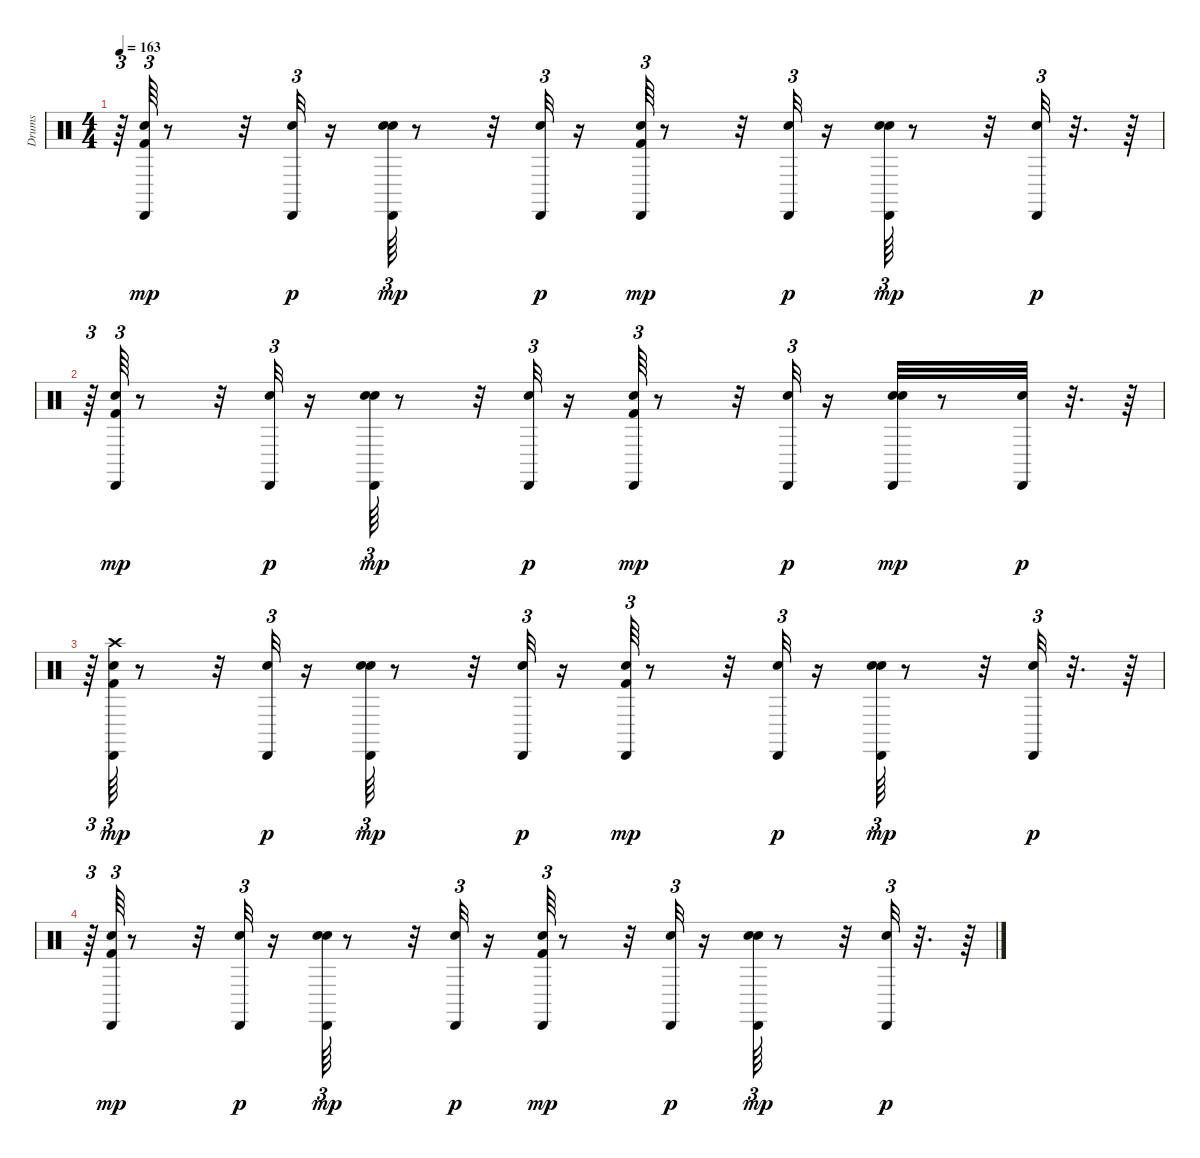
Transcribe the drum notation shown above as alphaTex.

\track ("Drums               " "Drums     ") {instrument percussion}
\staff {score}
\articulation defaults
\ts (4 4)
\tempo 163
\clef neutral
\ks c
r.64{tu (3 2) dy p} ("Kick (hit) 2" "Snare (hit) 2" "Cabasa (hit)").64{tu (3 2) dy mp} r.8 r.32 ("Snare (hit) 2" "Cabasa (hit)").32{tu (3 2) dy p} r.16 ("Snare (hit) 2" "Hand Clap (hit)" "Cabasa (hit)").64{tu (3 2) dy mp} r.8 r.32 ("Snare (hit) 2" "Cabasa (hit)").32{tu (3 2) dy p} r.16 ("Kick (hit) 2" "Snare (hit) 2" "Cabasa (hit)").64{tu (3 2) dy mp} r.8 r.32 ("Snare (hit) 2" "Cabasa (hit)").32{tu (3 2) dy p} r.16 ("Snare (hit) 2" "Hand Clap (hit)" "Cabasa (hit)").64{tu (3 2) dy mp} r.8 r.32 ("Snare (hit) 2" "Cabasa (hit)").32{tu (3 2) dy p} r.32{d} r.64 |
r.64{tu (3 2)} ("Kick (hit) 2" "Snare (hit) 2" "Cabasa (hit)").64{tu (3 2) dy mp} r.8 r.32 ("Snare (hit) 2" "Cabasa (hit)").32{tu (3 2) dy p} r.16 ("Snare (hit) 2" "Hand Clap (hit)" "Cabasa (hit)").64{tu (3 2) dy mp} r.8 r.32 ("Snare (hit) 2" "Cabasa (hit)").32{tu (3 2) dy p} r.16 ("Kick (hit) 2" "Snare (hit) 2" "Cabasa (hit)").64{tu (3 2) dy mp} r.8 r.32 ("Snare (hit) 2" "Cabasa (hit)").32{tu (3 2) dy p} r.16 ("Snare (hit) 2" "Hand Clap (hit)" "Cabasa (hit)").32{dy mp} r.8 ("Snare (hit) 2" "Cabasa (hit)").32{dy p} r.32{d} r.64 |
r.64{tu (3 2)} ("Kick (hit) 2" "Snare (hit) 2" "Crash high (hit)" "Cabasa (hit)").64{tu (3 2) dy mp} r.8 r.32 ("Snare (hit) 2" "Cabasa (hit)").32{tu (3 2) dy p} r.16 ("Snare (hit) 2" "Hand Clap (hit)" "Cabasa (hit)").64{tu (3 2) dy mp} r.8 r.32 ("Snare (hit) 2" "Cabasa (hit)").32{tu (3 2) dy p} r.16 ("Kick (hit) 2" "Snare (hit) 2" "Cabasa (hit)").64{tu (3 2) dy mp} r.8 r.32 ("Snare (hit) 2" "Cabasa (hit)").32{tu (3 2) dy p} r.16 ("Snare (hit) 2" "Hand Clap (hit)" "Cabasa (hit)").64{tu (3 2) dy mp} r.8 r.32 ("Snare (hit) 2" "Cabasa (hit)").32{tu (3 2) dy p} r.32{d} r.64 |
r.64{tu (3 2)} ("Kick (hit) 2" "Snare (hit) 2" "Cabasa (hit)").64{tu (3 2) dy mp} r.8 r.32 ("Snare (hit) 2" "Cabasa (hit)").32{tu (3 2) dy p} r.16 ("Snare (hit) 2" "Hand Clap (hit)" "Cabasa (hit)").64{tu (3 2) dy mp} r.8 r.32 ("Snare (hit) 2" "Cabasa (hit)").32{tu (3 2) dy p} r.16 ("Kick (hit) 2" "Snare (hit) 2" "Cabasa (hit)").64{tu (3 2) dy mp} r.8 r.32 ("Snare (hit) 2" "Cabasa (hit)").32{tu (3 2) dy p} r.16 ("Snare (hit) 2" "Hand Clap (hit)" "Cabasa (hit)").64{tu (3 2) dy mp} r.8 r.32 ("Snare (hit) 2" "Cabasa (hit)").32{tu (3 2) dy p} r.32{d} r.64
